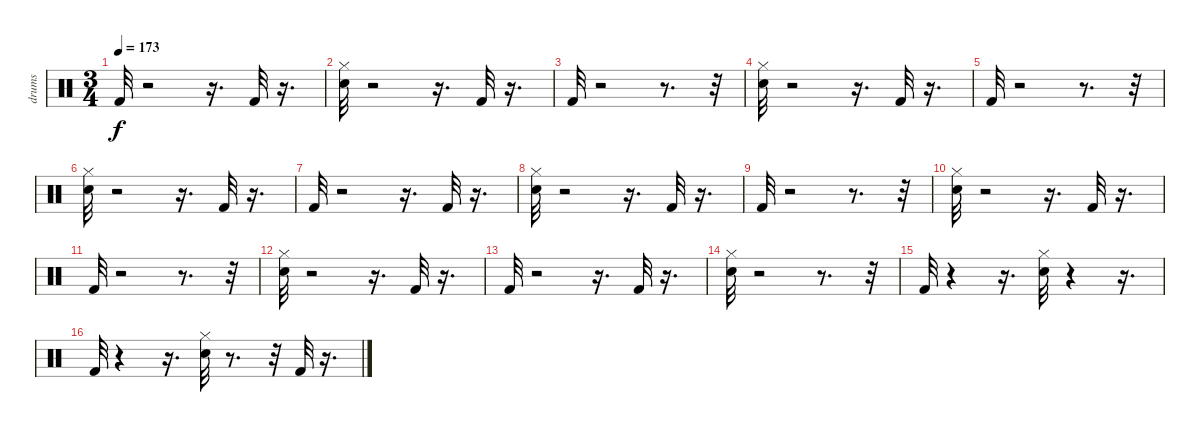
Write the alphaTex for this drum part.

\track ("drums" "drums") {instrument percussion}
\staff {score}
\articulation defaults
\ts (3 4)
\tempo 173
\clef neutral
\ks c "Kick (hit) 2".32{dy f}
r.2 r.16{d} "Kick (hit) 2".32 r.16{d} |
("Hi-Hat (closed)" "Snare (hit) 2").32 r.2 r.16{d} "Kick (hit) 2".32 r.16{d} |
"Kick (hit) 2".32 r.2 r.8{d} r.32 |
("Hi-Hat (closed)" "Snare (hit) 2").32 r.2 r.16{d} "Kick (hit) 2".32 r.16{d} |
"Kick (hit) 2".32 r.2 r.8{d} r.32 |
("Hi-Hat (closed)" "Snare (hit) 2").32 r.2 r.16{d} "Kick (hit) 2".32 r.16{d} |
"Kick (hit) 2".32 r.2 r.16{d} "Kick (hit) 2".32 r.16{d} |
("Hi-Hat (closed)" "Snare (hit) 2").32 r.2 r.16{d} "Kick (hit) 2".32 r.16{d} |
"Kick (hit) 2".32 r.2 r.8{d} r.32 |
("Snare (hit) 2" "Hi-Hat (closed)").32 r.2 r.16{d} "Kick (hit) 2".32 r.16{d} |
"Kick (hit) 2".32 r.2 r.8{d} r.32 |
("Hi-Hat (closed)" "Snare (hit) 2").32 r.2 r.16{d} "Kick (hit) 2".32 r.16{d} |
"Kick (hit) 2".32 r.2 r.16{d} "Kick (hit) 2".32 r.16{d} |
("Hi-Hat (closed)" "Snare (hit) 2").32 r.2 r.8{d} r.32 |
"Kick (hit) 2".32 r.4 r.16{d} ("Snare (hit) 2" "Hi-Hat (closed)").32 r.4 r.16{d} |
"Kick (hit) 2".32 r.4 r.16{d} ("Hi-Hat (closed)" "Snare (hit) 2").32 r.8{d} r.32 "Kick (hit) 2".32 r.16{d}
